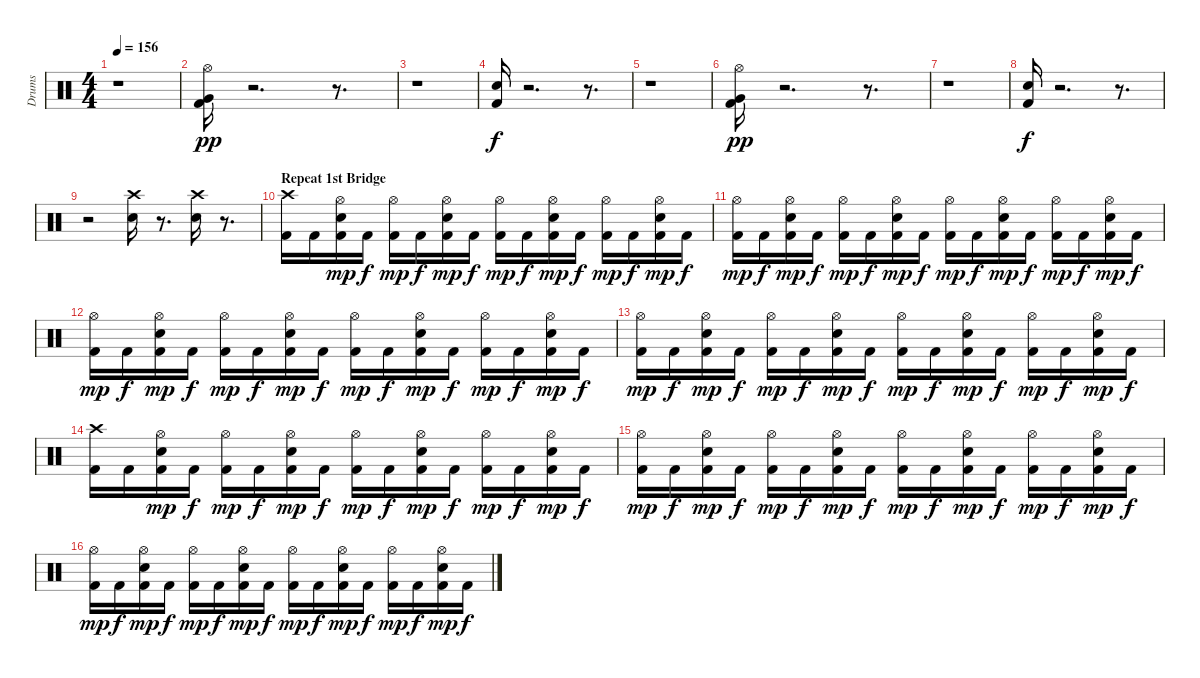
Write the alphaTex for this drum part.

\track ("Drums" "Drums") {instrument percussion}
\staff {score}
\articulation defaults
\ts (4 4)
\tempo 156
\clef neutral
\ks c
r.1{dy f} |
("Kick (hit) 2" "Very Low Tom (hit)" "Hi-Hat (open)").16{dy pp} r.2{d} r.8{d} |
r.1 |
("Kick (hit) 2" "Electric Snare (hit)").16{dy f} r.2{d} r.8{d} |
r.1 |
("Kick (hit) 2" "Very Low Tom (hit)" "Hi-Hat (open)").16{dy pp} r.2{d} r.8{d} |
r.1 |
("Kick (hit) 2" "Electric Snare (hit)").16{dy f} r.2{d} r.8{d} |
r.2 ("Crash high (hit)" "Snare (hit) 2").16 r.8{d} ("Crash high (hit)" "Snare (hit) 2").16 r.8{d} |
\section ("" "Repeat 1st Bridge")
("Kick (hit) 2" "Crash high (hit)").16 "Kick (hit) 2".16 ("Snare (hit) 2" "Kick (hit) 2" "Hi-Hat (open)").16{dy mp} "Kick (hit) 2".16{dy f} ("Kick (hit) 2" "Hi-Hat (open)").16{dy mp} "Kick (hit) 2".16{dy f} ("Snare (hit) 2" "Kick (hit) 2" "Hi-Hat (open)").16{dy mp} "Kick (hit) 2".16{dy f} ("Kick (hit) 2" "Hi-Hat (open)").16{dy mp} "Kick (hit) 2".16{dy f} ("Snare (hit) 2" "Kick (hit) 2" "Hi-Hat (open)").16{dy mp} "Kick (hit) 2".16{dy f} ("Kick (hit) 2" "Hi-Hat (open)").16{dy mp} "Kick (hit) 2".16{dy f} ("Snare (hit) 2" "Kick (hit) 2" "Hi-Hat (open)").16{dy mp} "Kick (hit) 2".16{dy f} |
("Kick (hit) 2" "Hi-Hat (open)").16{dy mp} "Kick (hit) 2".16{dy f} ("Snare (hit) 2" "Kick (hit) 2" "Hi-Hat (open)").16{dy mp} "Kick (hit) 2".16{dy f} ("Kick (hit) 2" "Hi-Hat (open)").16{dy mp} "Kick (hit) 2".16{dy f} ("Snare (hit) 2" "Kick (hit) 2" "Hi-Hat (open)").16{dy mp} "Kick (hit) 2".16{dy f} ("Kick (hit) 2" "Hi-Hat (open)").16{dy mp} "Kick (hit) 2".16{dy f} ("Snare (hit) 2" "Kick (hit) 2" "Hi-Hat (open)").16{dy mp} "Kick (hit) 2".16{dy f} ("Kick (hit) 2" "Hi-Hat (open)").16{dy mp} "Kick (hit) 2".16{dy f} ("Snare (hit) 2" "Kick (hit) 2" "Hi-Hat (open)").16{dy mp} "Kick (hit) 2".16{dy f} |
("Kick (hit) 2" "Hi-Hat (open)").16{dy mp} "Kick (hit) 2".16{dy f} ("Snare (hit) 2" "Kick (hit) 2" "Hi-Hat (open)").16{dy mp} "Kick (hit) 2".16{dy f} ("Kick (hit) 2" "Hi-Hat (open)").16{dy mp} "Kick (hit) 2".16{dy f} ("Snare (hit) 2" "Kick (hit) 2" "Hi-Hat (open)").16{dy mp} "Kick (hit) 2".16{dy f} ("Kick (hit) 2" "Hi-Hat (open)").16{dy mp} "Kick (hit) 2".16{dy f} ("Snare (hit) 2" "Kick (hit) 2" "Hi-Hat (open)").16{dy mp} "Kick (hit) 2".16{dy f} ("Kick (hit) 2" "Hi-Hat (open)").16{dy mp} "Kick (hit) 2".16{dy f} ("Snare (hit) 2" "Kick (hit) 2" "Hi-Hat (open)").16{dy mp} "Kick (hit) 2".16{dy f} |
("Kick (hit) 2" "Hi-Hat (open)").16{dy mp} "Kick (hit) 2".16{dy f} ("Snare (hit) 2" "Kick (hit) 2" "Hi-Hat (open)").16{dy mp} "Kick (hit) 2".16{dy f} ("Kick (hit) 2" "Hi-Hat (open)").16{dy mp} "Kick (hit) 2".16{dy f} ("Snare (hit) 2" "Kick (hit) 2" "Hi-Hat (open)").16{dy mp} "Kick (hit) 2".16{dy f} ("Kick (hit) 2" "Hi-Hat (open)").16{dy mp} "Kick (hit) 2".16{dy f} ("Snare (hit) 2" "Kick (hit) 2" "Hi-Hat (open)").16{dy mp} "Kick (hit) 2".16{dy f} ("Kick (hit) 2" "Hi-Hat (open)").16{dy mp} "Kick (hit) 2".16{dy f} ("Snare (hit) 2" "Kick (hit) 2" "Hi-Hat (open)").16{dy mp} "Kick (hit) 2".16{dy f} |
("Kick (hit) 2" "Crash high (hit)").16 "Kick (hit) 2".16 ("Snare (hit) 2" "Kick (hit) 2" "Hi-Hat (open)").16{dy mp} "Kick (hit) 2".16{dy f} ("Kick (hit) 2" "Hi-Hat (open)").16{dy mp} "Kick (hit) 2".16{dy f} ("Snare (hit) 2" "Kick (hit) 2" "Hi-Hat (open)").16{dy mp} "Kick (hit) 2".16{dy f} ("Kick (hit) 2" "Hi-Hat (open)").16{dy mp} "Kick (hit) 2".16{dy f} ("Snare (hit) 2" "Kick (hit) 2" "Hi-Hat (open)").16{dy mp} "Kick (hit) 2".16{dy f} ("Kick (hit) 2" "Hi-Hat (open)").16{dy mp} "Kick (hit) 2".16{dy f} ("Snare (hit) 2" "Kick (hit) 2" "Hi-Hat (open)").16{dy mp} "Kick (hit) 2".16{dy f} |
("Kick (hit) 2" "Hi-Hat (open)").16{dy mp} "Kick (hit) 2".16{dy f} ("Snare (hit) 2" "Kick (hit) 2" "Hi-Hat (open)").16{dy mp} "Kick (hit) 2".16{dy f} ("Kick (hit) 2" "Hi-Hat (open)").16{dy mp} "Kick (hit) 2".16{dy f} ("Snare (hit) 2" "Kick (hit) 2" "Hi-Hat (open)").16{dy mp} "Kick (hit) 2".16{dy f} ("Kick (hit) 2" "Hi-Hat (open)").16{dy mp} "Kick (hit) 2".16{dy f} ("Snare (hit) 2" "Kick (hit) 2" "Hi-Hat (open)").16{dy mp} "Kick (hit) 2".16{dy f} ("Kick (hit) 2" "Hi-Hat (open)").16{dy mp} "Kick (hit) 2".16{dy f} ("Snare (hit) 2" "Kick (hit) 2" "Hi-Hat (open)").16{dy mp} "Kick (hit) 2".16{dy f} |
("Kick (hit) 2" "Hi-Hat (open)").16{dy mp} "Kick (hit) 2".16{dy f} ("Snare (hit) 2" "Kick (hit) 2" "Hi-Hat (open)").16{dy mp} "Kick (hit) 2".16{dy f} ("Kick (hit) 2" "Hi-Hat (open)").16{dy mp} "Kick (hit) 2".16{dy f} ("Snare (hit) 2" "Kick (hit) 2" "Hi-Hat (open)").16{dy mp} "Kick (hit) 2".16{dy f} ("Kick (hit) 2" "Hi-Hat (open)").16{dy mp} "Kick (hit) 2".16{dy f} ("Snare (hit) 2" "Kick (hit) 2" "Hi-Hat (open)").16{dy mp} "Kick (hit) 2".16{dy f} ("Kick (hit) 2" "Hi-Hat (open)").16{dy mp} "Kick (hit) 2".16{dy f} ("Snare (hit) 2" "Kick (hit) 2" "Hi-Hat (open)").16{dy mp} "Kick (hit) 2".16{dy f}
